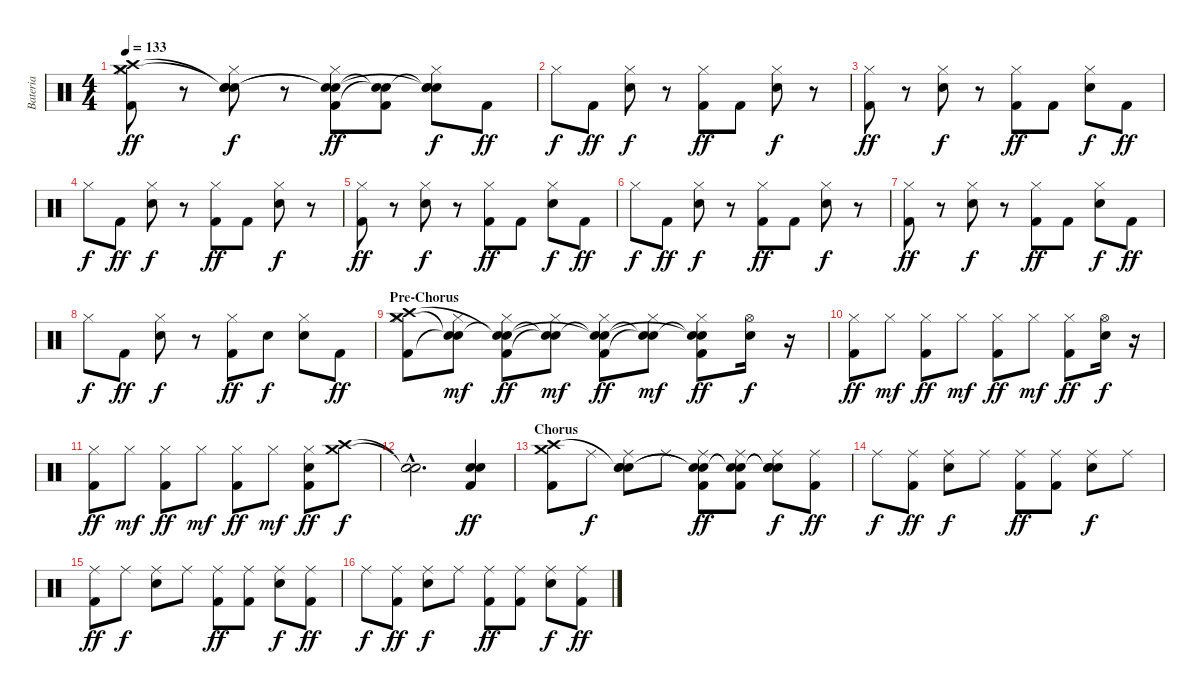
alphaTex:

\track ("Bateria" "Bateria") {instrument percussion}
\staff {score}
\articulation defaults
\ts (4 4)
\tempo 133
\clef neutral
\ks c
("Hi-Hat (closed)" "Kick (hit) 2" "Crash medium (hit)" "Crash high (hit)").8{dy ff} r.8 ("Hi-Hat (closed)" "Snare (hit) 2" "Snare (hit)"{t} "Snare (hit)"{t}).8{dy f} r.8 ("Hi-Hat (closed)" "Kick (hit) 2" "Snare (hit)"{t} "Snare (hit)"{t}).8{dy ff} ("Kick (hit) 2" "Snare (hit)"{t} "Snare (hit)"{t}).8 ("Hi-Hat (closed)" "Snare (hit) 2" "Snare (hit)"{t} "Snare (hit)"{t}).8{dy f} "Kick (hit) 2".8{dy ff} |
"Hi-Hat (closed)".8{dy f} "Kick (hit) 2".8{dy ff} ("Hi-Hat (closed)" "Snare (hit) 2").8{dy f} r.8 ("Hi-Hat (closed)" "Kick (hit) 2").8{dy ff} "Kick (hit) 2".8 ("Hi-Hat (closed)" "Snare (hit) 2").8{dy f} r.8 |
("Hi-Hat (closed)" "Kick (hit) 2").8{dy ff} r.8 ("Hi-Hat (closed)" "Snare (hit) 2").8{dy f} r.8 ("Hi-Hat (closed)" "Kick (hit) 2").8{dy ff} "Kick (hit) 2".8 ("Hi-Hat (closed)" "Snare (hit) 2").8{dy f} "Kick (hit) 2".8{dy ff} |
"Hi-Hat (closed)".8{dy f} "Kick (hit) 2".8{dy ff} ("Hi-Hat (closed)" "Snare (hit) 2").8{dy f} r.8 ("Hi-Hat (closed)" "Kick (hit) 2").8{dy ff} "Kick (hit) 2".8 ("Hi-Hat (closed)" "Snare (hit) 2").8{dy f} r.8 |
("Hi-Hat (closed)" "Kick (hit) 2").8{dy ff} r.8 ("Hi-Hat (closed)" "Snare (hit) 2").8{dy f} r.8 ("Hi-Hat (closed)" "Kick (hit) 2").8{dy ff} "Kick (hit) 2".8 ("Hi-Hat (closed)" "Snare (hit) 2").8{dy f} "Kick (hit) 2".8{dy ff} |
"Hi-Hat (closed)".8{dy f} "Kick (hit) 2".8{dy ff} ("Hi-Hat (closed)" "Snare (hit) 2").8{dy f} r.8 ("Hi-Hat (closed)" "Kick (hit) 2").8{dy ff} "Kick (hit) 2".8 ("Hi-Hat (closed)" "Snare (hit) 2").8{dy f} r.8 |
("Hi-Hat (closed)" "Kick (hit) 2").8{dy ff} r.8 ("Hi-Hat (closed)" "Snare (hit) 2").8{dy f} r.8 ("Hi-Hat (closed)" "Kick (hit) 2").8{dy ff} "Kick (hit) 2".8 ("Hi-Hat (closed)" "Snare (hit) 2").8{dy f} "Kick (hit) 2".8{dy ff} |
"Hi-Hat (closed)".8{dy f} "Kick (hit) 2".8{dy ff} ("Hi-Hat (closed)" "Snare (hit) 2").8{dy f} r.8 ("Hi-Hat (closed)" "Kick (hit) 2").8{dy ff} "Snare (hit) 2".8{dy f} ("Hi-Hat (closed)" "Snare (hit) 2").8 "Kick (hit) 2".8{dy ff} |
\section ("" "Pre-Chorus")
("Hi-Hat (closed)" "Kick (hit) 2" "Crash medium (hit)" "Crash high (hit)").8 ("Hi-Hat (closed)" "Snare (hit)"{t} "Snare (hit)"{t}).8{dy mf} ("Hi-Hat (closed)" "Kick (hit) 2" "Snare (hit)"{t} "Snare (hit)"{t}).8{dy ff} ("Hi-Hat (closed)" "Snare (hit)"{t} "Snare (hit)"{t}).8{dy mf} ("Hi-Hat (closed)" "Kick (hit) 2" "Snare (hit)"{t} "Snare (hit)"{t}).8{dy ff} ("Hi-Hat (closed)" "Snare (hit)"{t} "Snare (hit)"{t}).8{dy mf} ("Hi-Hat (closed)" "Kick (hit) 2" "Snare (hit)"{t} "Snare (hit)"{t}).8{dy ff} ("Hi-Hat (open)" "Snare (hit) 2").16{dy f} r.16 |
("Hi-Hat (closed)" "Kick (hit) 2").8{dy ff} "Hi-Hat (closed)".8{dy mf} ("Hi-Hat (closed)" "Kick (hit) 2").8{dy ff} "Hi-Hat (closed)".8{dy mf} ("Hi-Hat (closed)" "Kick (hit) 2").8{dy ff} "Hi-Hat (closed)".8{dy mf} ("Hi-Hat (closed)" "Kick (hit) 2").8{dy ff} ("Hi-Hat (open)" "Snare (hit) 2").16{dy f} r.16 |
("Hi-Hat (closed)" "Kick (hit) 2").8{dy ff} "Hi-Hat (closed)".8{dy mf} ("Hi-Hat (closed)" "Kick (hit) 2").8{dy ff} "Hi-Hat (closed)".8{dy mf} ("Hi-Hat (closed)" "Kick (hit) 2").8{dy ff} "Hi-Hat (closed)".8{dy mf} ("Hi-Hat (closed)" "Snare (hit) 2" "Kick (hit) 2").8{dy ff} ("Crash medium (hit)" "Crash high (hit)").8{dy f} |
("Snare (hit)"{hac t} "Snare (hit)"{hac t}).2{d} ("Snare (hit) 2" "Snare (hit) 2" "Kick (hit) 2").4{dy ff} |
\section ("" "Chorus")
("Kick (hit) 2" "Crash medium (hit)" "Crash high (hit)").8 "Ride (middle)".8{dy f} ("Ride (middle)" "Snare (hit) 2" "Snare (hit)"{t} "Snare (hit)").8 "Ride (middle)".8 ("Ride (middle)" "Kick (hit) 2" "Snare (hit)"{t} "Snare (hit)"{t}).8{dy ff} ("Ride (middle)" "Kick (hit) 2" "Snare (hit)"{t} "Snare (hit)"{t}).8 ("Ride (middle)" "Snare (hit) 2" "Snare (hit)"{t} "Snare (hit)"{t}).8{dy f} ("Ride (middle)" "Kick (hit) 2").8{dy ff} |
"Ride (middle)".8{dy f} ("Ride (middle)" "Kick (hit) 2").8{dy ff} ("Ride (middle)" "Snare (hit) 2").8{dy f} "Ride (middle)".8 ("Ride (middle)" "Kick (hit) 2").8{dy ff} ("Ride (middle)" "Kick (hit) 2").8 ("Ride (middle)" "Snare (hit) 2").8{dy f} "Ride (middle)".8 |
("Ride (middle)" "Kick (hit) 2").8{dy ff} "Ride (middle)".8{dy f} ("Ride (middle)" "Snare (hit) 2").8 "Ride (middle)".8 ("Ride (middle)" "Kick (hit) 2").8{dy ff} ("Ride (middle)" "Kick (hit) 2").8 ("Ride (middle)" "Snare (hit) 2").8{dy f} ("Ride (middle)" "Kick (hit) 2").8{dy ff} |
"Ride (middle)".8{dy f} ("Ride (middle)" "Kick (hit) 2").8{dy ff} ("Ride (middle)" "Snare (hit) 2").8{dy f} "Ride (middle)".8 ("Ride (middle)" "Kick (hit) 2").8{dy ff} ("Ride (middle)" "Kick (hit) 2").8 ("Ride (middle)" "Snare (hit) 2").8{dy f} ("Ride (middle)" "Kick (hit) 2").8{dy ff}
